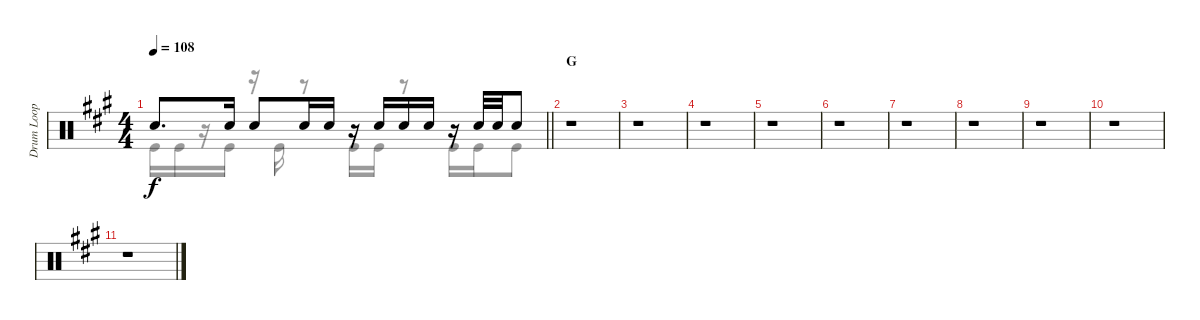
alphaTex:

\track ("Drum Loop" "Drum Loop") {instrument percussion}
\staff {score}
\articulation defaults
\voice
\ts (4 4)
\tempo 108
\clef neutral
\barLineRight lightlight
\ks f#minor "Electric Snare (hit)".8{d dy f} "Electric Snare (hit)".16 "Electric Snare (hit)".8 "Electric Snare (hit)".16 "Electric Snare (hit)".16
r.16 "Electric Snare (hit)".16 "Electric Snare (hit)".16 "Electric Snare (hit)".16 r.16 "Electric Snare (hit)".32 "Electric Snare (hit)".32 "Electric Snare (hit)".8 |
\section ("" "G")
r.1 |
r.1 |
r.1 |
r.1 |
r.1 |
r.1 |
r.1 |
r.1 |
r.1 |
r.1
\voice
\clef neutral
\ottava regular
\simile none
\barLineRight lightlight
\ks f#minor "Kick (hit)".16{dy f} "Kick (hit)".16
r.16 "Kick (hit)".16 r.16 "Kick (hit)".16 r.8 "Kick (hit)".16 "Kick (hit)".16 r.8 "Kick (hit)".16 "Kick (hit)".16 "Kick (hit)".8 |
r.1 |
r.1 |
r.1 |
r.1 |
r.1 |
r.1 |
r.1 |
r.1 |
r.1 |
r.1
